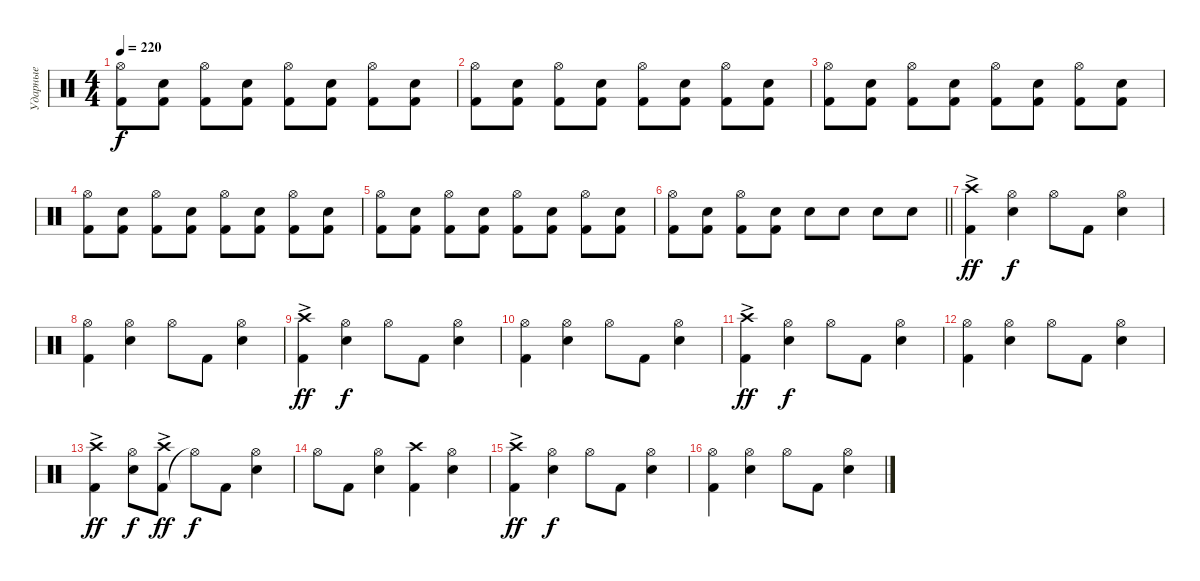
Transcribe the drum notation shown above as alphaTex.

\track ("Ударные" "Ударные") {instrument percussion}
\staff {score}
\articulation defaults
\ts (4 4)
\tempo 220
\clef neutral
\ks c
("Kick (hit) 2" "Hi-Hat (open)").8{dy f} ("Kick (hit) 2" "Snare (hit) 2").8 ("Kick (hit) 2" "Hi-Hat (open)").8 ("Kick (hit) 2" "Snare (hit) 2").8 ("Kick (hit) 2" "Hi-Hat (open)").8 ("Kick (hit) 2" "Snare (hit) 2").8 ("Kick (hit) 2" "Hi-Hat (open)").8 ("Kick (hit) 2" "Snare (hit) 2").8 |
("Kick (hit) 2" "Hi-Hat (open)").8 ("Kick (hit) 2" "Snare (hit) 2").8 ("Kick (hit) 2" "Hi-Hat (open)").8 ("Kick (hit) 2" "Snare (hit) 2").8 ("Kick (hit) 2" "Hi-Hat (open)").8 ("Kick (hit) 2" "Snare (hit) 2").8 ("Kick (hit) 2" "Hi-Hat (open)").8 ("Kick (hit) 2" "Snare (hit) 2").8 |
("Kick (hit) 2" "Hi-Hat (open)").8 ("Kick (hit) 2" "Snare (hit) 2").8 ("Kick (hit) 2" "Hi-Hat (open)").8 ("Kick (hit) 2" "Snare (hit) 2").8 ("Kick (hit) 2" "Hi-Hat (open)").8 ("Kick (hit) 2" "Snare (hit) 2").8 ("Kick (hit) 2" "Hi-Hat (open)").8 ("Kick (hit) 2" "Snare (hit) 2").8 |
("Kick (hit) 2" "Hi-Hat (open)").8 ("Kick (hit) 2" "Snare (hit) 2").8 ("Kick (hit) 2" "Hi-Hat (open)").8 ("Kick (hit) 2" "Snare (hit) 2").8 ("Kick (hit) 2" "Hi-Hat (open)").8 ("Kick (hit) 2" "Snare (hit) 2").8 ("Kick (hit) 2" "Hi-Hat (open)").8 ("Kick (hit) 2" "Snare (hit) 2").8 |
("Kick (hit) 2" "Hi-Hat (open)").8 ("Kick (hit) 2" "Snare (hit) 2").8 ("Kick (hit) 2" "Hi-Hat (open)").8 ("Kick (hit) 2" "Snare (hit) 2").8 ("Kick (hit) 2" "Hi-Hat (open)").8 ("Kick (hit) 2" "Snare (hit) 2").8 ("Kick (hit) 2" "Hi-Hat (open)").8 ("Kick (hit) 2" "Snare (hit) 2").8 |
\barLineRight lightlight
("Kick (hit) 2" "Hi-Hat (open)").8 ("Kick (hit) 2" "Snare (hit) 2").8 ("Kick (hit) 2" "Hi-Hat (open)").8 ("Kick (hit) 2" "Snare (hit) 2").8 "Snare (hit) 2".8 "Snare (hit) 2".8 "Snare (hit) 2".8 "Snare (hit) 2".8 |
("Kick (hit) 2" "Crash high (hit)"{ac}).4{dy ff} ("Snare (hit) 2" "Hi-Hat (open)").4{dy f} "Hi-Hat (open)".8 "Kick (hit) 2".8 ("Snare (hit) 2" "Hi-Hat (open)").4 |
("Kick (hit) 2" "Hi-Hat (open)").4 ("Snare (hit) 2" "Hi-Hat (open)").4 "Hi-Hat (open)".8 "Kick (hit) 2".8 ("Snare (hit) 2" "Hi-Hat (open)").4 |
("Kick (hit) 2" "Crash high (hit)"{ac}).4{dy ff} ("Snare (hit) 2" "Hi-Hat (open)").4{dy f} "Hi-Hat (open)".8 "Kick (hit) 2".8 ("Snare (hit) 2" "Hi-Hat (open)").4 |
("Kick (hit) 2" "Hi-Hat (open)").4 ("Snare (hit) 2" "Hi-Hat (open)").4 "Hi-Hat (open)".8 "Kick (hit) 2".8 ("Snare (hit) 2" "Hi-Hat (open)").4 |
("Kick (hit) 2" "Crash high (hit)"{ac}).4{dy ff} ("Snare (hit) 2" "Hi-Hat (open)").4{dy f} "Hi-Hat (open)".8 "Kick (hit) 2".8 ("Snare (hit) 2" "Hi-Hat (open)").4 |
("Kick (hit) 2" "Hi-Hat (open)").4 ("Snare (hit) 2" "Hi-Hat (open)").4 "Hi-Hat (open)".8 "Kick (hit) 2".8 ("Snare (hit) 2" "Hi-Hat (open)").4 |
("Kick (hit) 2" "Crash high (hit)"{ac}).4{dy ff} ("Snare (hit) 2" "Hi-Hat (open)").8{dy f} ("Kick (hit) 2" "Crash high (hit)"{ac}).8{dy ff} "Hi-Hat (open)"{t}.8{dy f} "Kick (hit) 2".8 ("Snare (hit) 2" "Hi-Hat (open)").4 |
"Hi-Hat (open)".8 "Kick (hit) 2".8 ("Snare (hit) 2" "Hi-Hat (open)").4 ("Kick (hit) 2" "Crash high (hit)").4 ("Snare (hit) 2" "Hi-Hat (open)").4 |
("Kick (hit) 2" "Crash high (hit)"{ac}).4{dy ff} ("Snare (hit) 2" "Hi-Hat (open)").4{dy f} "Hi-Hat (open)".8 "Kick (hit) 2".8 ("Snare (hit) 2" "Hi-Hat (open)").4 |
("Kick (hit) 2" "Hi-Hat (open)").4 ("Snare (hit) 2" "Hi-Hat (open)").4 "Hi-Hat (open)".8 "Kick (hit) 2".8 ("Snare (hit) 2" "Hi-Hat (open)").4
